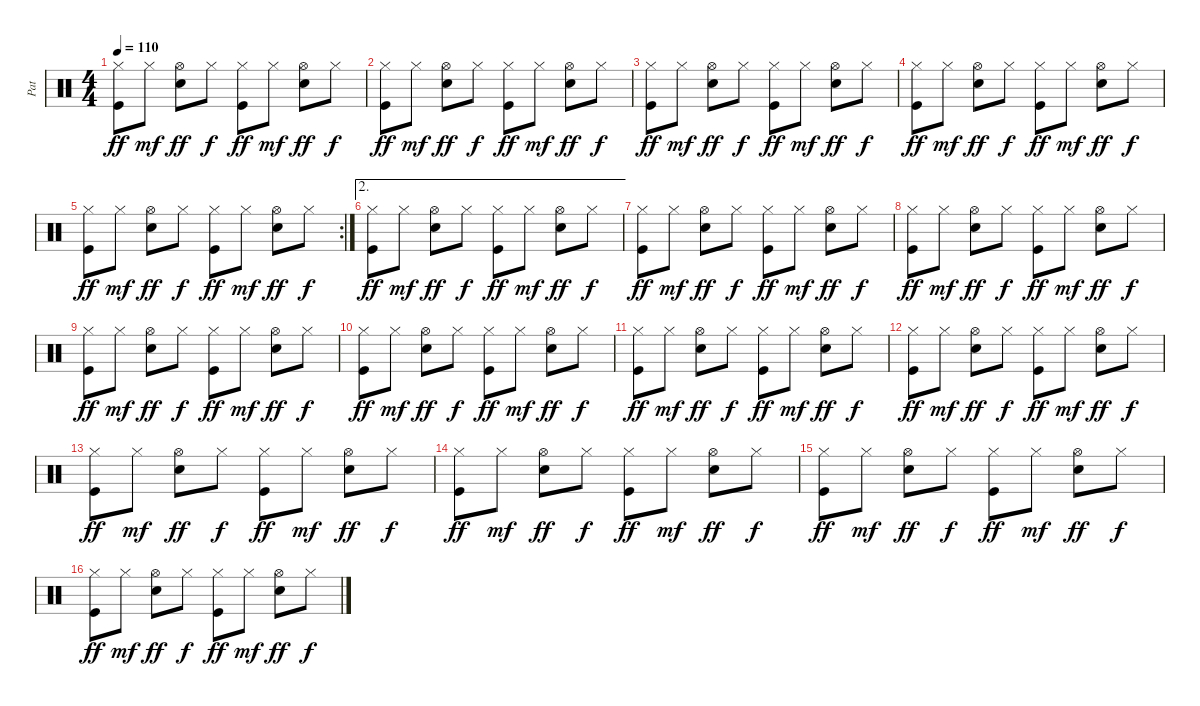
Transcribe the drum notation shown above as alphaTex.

\track ("Pat" "Pat") {instrument percussion}
\staff {score}
\articulation defaults
\ts (4 4)
\tempo 110
\clef neutral
\ks c
("Hi-Hat (closed)" "Kick (hit)").8{dy ff} "Hi-Hat (closed)".8{dy mf} ("Hi-Hat (open)" "Snare (hit) 2").8{dy ff} "Hi-Hat (closed)".8{dy f} ("Hi-Hat (closed)" "Kick (hit)").8{dy ff} "Hi-Hat (closed)".8{dy mf} ("Hi-Hat (open)" "Snare (hit) 2").8{dy ff} "Hi-Hat (closed)".8{dy f} |
("Hi-Hat (closed)" "Kick (hit)").8{dy ff} "Hi-Hat (closed)".8{dy mf} ("Hi-Hat (open)" "Snare (hit) 2").8{dy ff} "Hi-Hat (closed)".8{dy f} ("Hi-Hat (closed)" "Kick (hit)").8{dy ff} "Hi-Hat (closed)".8{dy mf} ("Hi-Hat (open)" "Snare (hit) 2").8{dy ff} "Hi-Hat (closed)".8{dy f} |
("Hi-Hat (closed)" "Kick (hit)").8{dy ff} "Hi-Hat (closed)".8{dy mf} ("Hi-Hat (open)" "Snare (hit) 2").8{dy ff} "Hi-Hat (closed)".8{dy f} ("Hi-Hat (closed)" "Kick (hit)").8{dy ff} "Hi-Hat (closed)".8{dy mf} ("Hi-Hat (open)" "Snare (hit) 2").8{dy ff} "Hi-Hat (closed)".8{dy f} |
("Hi-Hat (closed)" "Kick (hit)").8{dy ff} "Hi-Hat (closed)".8{dy mf} ("Hi-Hat (open)" "Snare (hit) 2").8{dy ff} "Hi-Hat (closed)".8{dy f} ("Hi-Hat (closed)" "Kick (hit)").8{dy ff} "Hi-Hat (closed)".8{dy mf} ("Hi-Hat (open)" "Snare (hit) 2").8{dy ff} "Hi-Hat (closed)".8{dy f} |
\rc 2
("Hi-Hat (closed)" "Kick (hit)").8{dy ff} "Hi-Hat (closed)".8{dy mf} ("Hi-Hat (open)" "Snare (hit) 2").8{dy ff} "Hi-Hat (closed)".8{dy f} ("Hi-Hat (closed)" "Kick (hit)").8{dy ff} "Hi-Hat (closed)".8{dy mf} ("Hi-Hat (open)" "Snare (hit) 2").8{dy ff} "Hi-Hat (closed)".8{dy f} |
\ae 2
("Hi-Hat (closed)" "Kick (hit)").8{dy ff} "Hi-Hat (closed)".8{dy mf} ("Hi-Hat (open)" "Snare (hit) 2").8{dy ff} "Hi-Hat (closed)".8{dy f} ("Hi-Hat (closed)" "Kick (hit)").8{dy ff} "Hi-Hat (closed)".8{dy mf} ("Hi-Hat (open)" "Snare (hit) 2").8{dy ff} "Hi-Hat (closed)".8{dy f} |
("Hi-Hat (closed)" "Kick (hit)").8{dy ff} "Hi-Hat (closed)".8{dy mf} ("Hi-Hat (open)" "Snare (hit) 2").8{dy ff} "Hi-Hat (closed)".8{dy f} ("Hi-Hat (closed)" "Kick (hit)").8{dy ff} "Hi-Hat (closed)".8{dy mf} ("Hi-Hat (open)" "Snare (hit) 2").8{dy ff} "Hi-Hat (closed)".8{dy f} |
("Hi-Hat (closed)" "Kick (hit)").8{dy ff} "Hi-Hat (closed)".8{dy mf} ("Hi-Hat (open)" "Snare (hit) 2").8{dy ff} "Hi-Hat (closed)".8{dy f} ("Hi-Hat (closed)" "Kick (hit)").8{dy ff} "Hi-Hat (closed)".8{dy mf} ("Hi-Hat (open)" "Snare (hit) 2").8{dy ff} "Hi-Hat (closed)".8{dy f} |
("Hi-Hat (closed)" "Kick (hit)").8{dy ff} "Hi-Hat (closed)".8{dy mf} ("Hi-Hat (open)" "Snare (hit) 2").8{dy ff} "Hi-Hat (closed)".8{dy f} ("Hi-Hat (closed)" "Kick (hit)").8{dy ff} "Hi-Hat (closed)".8{dy mf} ("Hi-Hat (open)" "Snare (hit) 2").8{dy ff} "Hi-Hat (closed)".8{dy f} |
("Hi-Hat (closed)" "Kick (hit)").8{dy ff} "Hi-Hat (closed)".8{dy mf} ("Hi-Hat (open)" "Snare (hit) 2").8{dy ff} "Hi-Hat (closed)".8{dy f} ("Hi-Hat (closed)" "Kick (hit)").8{dy ff} "Hi-Hat (closed)".8{dy mf} ("Hi-Hat (open)" "Snare (hit) 2").8{dy ff} "Hi-Hat (closed)".8{dy f} |
("Hi-Hat (closed)" "Kick (hit)").8{dy ff} "Hi-Hat (closed)".8{dy mf} ("Hi-Hat (open)" "Snare (hit) 2").8{dy ff} "Hi-Hat (closed)".8{dy f} ("Hi-Hat (closed)" "Kick (hit)").8{dy ff} "Hi-Hat (closed)".8{dy mf} ("Hi-Hat (open)" "Snare (hit) 2").8{dy ff} "Hi-Hat (closed)".8{dy f} |
("Hi-Hat (closed)" "Kick (hit)").8{dy ff} "Hi-Hat (closed)".8{dy mf} ("Hi-Hat (open)" "Snare (hit) 2").8{dy ff} "Hi-Hat (closed)".8{dy f} ("Hi-Hat (closed)" "Kick (hit)").8{dy ff} "Hi-Hat (closed)".8{dy mf} ("Hi-Hat (open)" "Snare (hit) 2").8{dy ff} "Hi-Hat (closed)".8{dy f} |
("Hi-Hat (closed)" "Kick (hit)").8{dy ff} "Hi-Hat (closed)".8{dy mf} ("Hi-Hat (open)" "Snare (hit) 2").8{dy ff} "Hi-Hat (closed)".8{dy f} ("Hi-Hat (closed)" "Kick (hit)").8{dy ff} "Hi-Hat (closed)".8{dy mf} ("Hi-Hat (open)" "Snare (hit) 2").8{dy ff} "Hi-Hat (closed)".8{dy f} |
("Hi-Hat (closed)" "Kick (hit)").8{dy ff} "Hi-Hat (closed)".8{dy mf} ("Hi-Hat (open)" "Snare (hit) 2").8{dy ff} "Hi-Hat (closed)".8{dy f} ("Hi-Hat (closed)" "Kick (hit)").8{dy ff} "Hi-Hat (closed)".8{dy mf} ("Hi-Hat (open)" "Snare (hit) 2").8{dy ff} "Hi-Hat (closed)".8{dy f} |
("Hi-Hat (closed)" "Kick (hit)").8{dy ff} "Hi-Hat (closed)".8{dy mf} ("Hi-Hat (open)" "Snare (hit) 2").8{dy ff} "Hi-Hat (closed)".8{dy f} ("Hi-Hat (closed)" "Kick (hit)").8{dy ff} "Hi-Hat (closed)".8{dy mf} ("Hi-Hat (open)" "Snare (hit) 2").8{dy ff} "Hi-Hat (closed)".8{dy f} |
("Hi-Hat (closed)" "Kick (hit)").8{dy ff} "Hi-Hat (closed)".8{dy mf} ("Hi-Hat (open)" "Snare (hit) 2").8{dy ff} "Hi-Hat (closed)".8{dy f} ("Hi-Hat (closed)" "Kick (hit)").8{dy ff} "Hi-Hat (closed)".8{dy mf} ("Hi-Hat (open)" "Snare (hit) 2").8{dy ff} "Hi-Hat (closed)".8{dy f}
